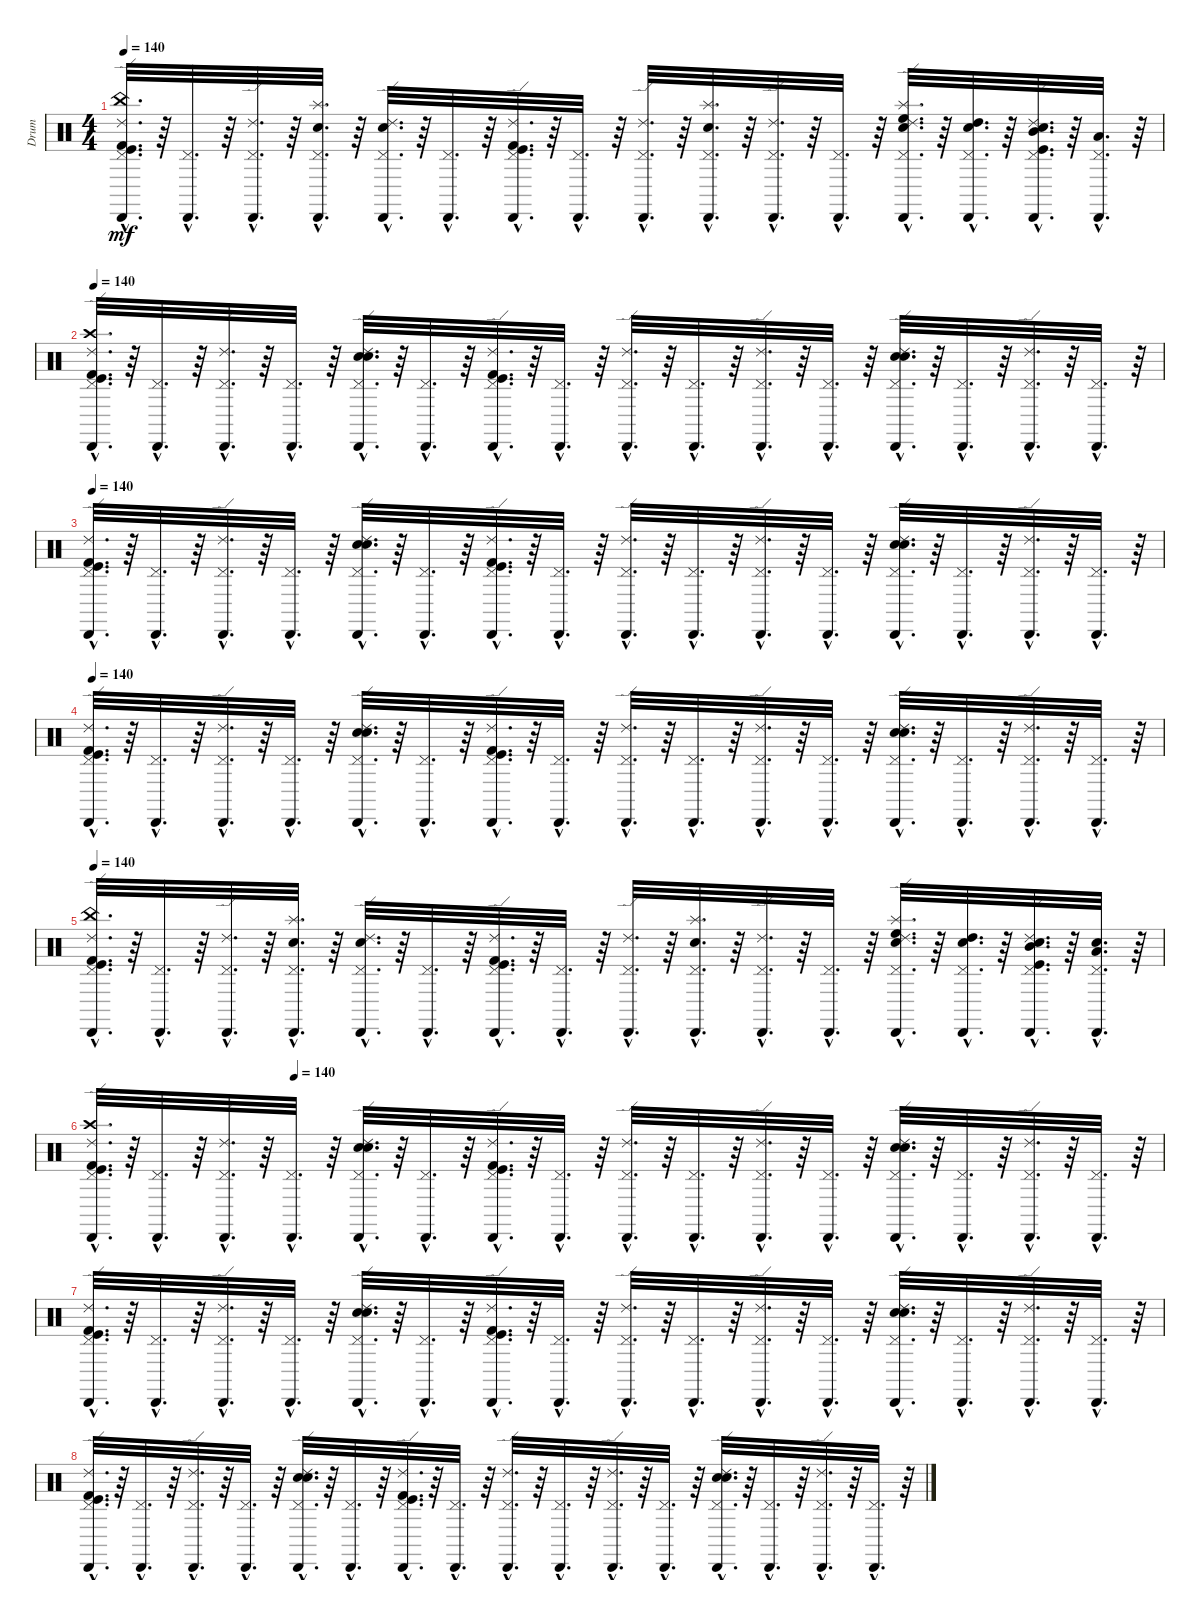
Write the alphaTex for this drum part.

\track ("Drum" "Drum") {instrument percussion}
\staff {score}
\articulation defaults
\ts (4 4)
\tempo 140
\clef neutral
\ks c
("Pedal Hi-Hat (hit)"{hac} "Kick (hit)"{hac} "Kick (hit) 2"{hac} "Ride (edge) 2"{hac} "Cabasa (hit)"{hac} "China (hit)"{hac}).32{d dy mf} r.64 ("Cabasa (hit)"{hac} "Pedal Hi-Hat (hit)"{hac}).32{d} r.64 ("Pedal Hi-Hat (hit)"{hac} "Cabasa (hit)"{hac} "Ride (edge) 2"{hac}).32{d} r.64 ("Cabasa (hit)"{hac} "Pedal Hi-Hat (hit)"{hac} "Snare (hit) 2"{hac} "Splash (hit)"{hac}).32{d} r.64 ("Pedal Hi-Hat (hit)"{hac} "Cabasa (hit)"{hac} "Ride (edge) 2"{hac} "Snare (hit) 2"{hac}).32{d} r.64 ("Pedal Hi-Hat (hit)"{hac} "Cabasa (hit)"{hac}).32{d} r.64 ("Pedal Hi-Hat (hit)"{hac} "Kick (hit) 2"{hac} "Kick (hit)"{hac} "Cabasa (hit)"{hac} "Ride (edge) 2"{hac}).32{d} r.64 ("Cabasa (hit)"{hac} "Pedal Hi-Hat (hit)"{hac}).32{d} r.64 ("Ride (edge) 2"{hac} "Pedal Hi-Hat (hit)"{hac} "Cabasa (hit)"{hac}).32{d} r.64 ("Cabasa (hit)"{hac} "Pedal Hi-Hat (hit)"{hac} "Snare (hit) 2"{hac} "Splash (hit)"{hac}).32{d} r.64 ("Ride (edge) 2"{hac} "Cabasa (hit)"{hac} "Pedal Hi-Hat (hit)"{hac}).32{d} r.64 ("Cabasa (hit)"{hac} "Pedal Hi-Hat (hit)"{hac}).32{d} r.64 ("Pedal Hi-Hat (hit)"{hac} "Cabasa (hit)"{hac} "Ride (edge) 2"{hac} "Snare (hit) 2"{hac} "Splash (hit)"{hac} "High Floor Tom (hit)"{hac}).32{d} r.64 ("Cabasa (hit)"{hac} "Pedal Hi-Hat (hit)"{hac} "Snare (hit) 2"{hac} "High Tom (hit)"{hac}).32{d} r.64 ("Pedal Hi-Hat (hit)"{hac} "Cabasa (hit)"{hac} "Ride (edge) 2"{hac} "Snare (hit) 2"{hac} "Mid Tom (hit)"{hac} "Kick (hit)"{hac}).32{d} r.64 ("Cabasa (hit)"{hac} "Pedal Hi-Hat (hit)"{hac} "Low Tom (hit)"{hac}).32{d} r.64 |
\tempo 140
("Pedal Hi-Hat (hit)"{hac} "Cabasa (hit)"{hac} "Ride (edge) 2"{hac} "Kick (hit)"{hac} "Kick (hit) 2"{hac} "Crash high (hit)"{hac}).32{d} r.64 ("Pedal Hi-Hat (hit)"{hac} "Cabasa (hit)"{hac}).32{d} r.64 ("Pedal Hi-Hat (hit)"{hac} "Cabasa (hit)"{hac} "Ride (edge) 2"{hac}).32{d} r.64 ("Pedal Hi-Hat (hit)"{hac} "Cabasa (hit)"{hac}).32{d} r.64 ("Pedal Hi-Hat (hit)"{hac} "Cabasa (hit)"{hac} "Ride (edge) 2"{hac} "Electric Snare (hit)"{hac} "Snare (hit) 2"{hac}).32{d} r.64 ("Pedal Hi-Hat (hit)"{hac} "Cabasa (hit)"{hac}).32{d} r.64 ("Pedal Hi-Hat (hit)"{hac} "Cabasa (hit)"{hac} "Ride (edge) 2"{hac} "Kick (hit) 2"{hac} "Kick (hit)"{hac}).32{d} r.64 ("Pedal Hi-Hat (hit)"{hac} "Cabasa (hit)"{hac}).32{d} r.64 ("Pedal Hi-Hat (hit)"{hac} "Cabasa (hit)"{hac} "Ride (edge) 2"{hac}).32{d} r.64 ("Pedal Hi-Hat (hit)"{hac} "Cabasa (hit)"{hac}).32{d} r.64 ("Pedal Hi-Hat (hit)"{hac} "Cabasa (hit)"{hac} "Ride (edge) 2"{hac}).32{d} r.64 ("Pedal Hi-Hat (hit)"{hac} "Cabasa (hit)"{hac}).32{d} r.64 ("Pedal Hi-Hat (hit)"{hac} "Cabasa (hit)"{hac} "Ride (edge) 2"{hac} "Snare (hit) 2"{hac} "Electric Snare (hit)"{hac}).32{d} r.64 ("Pedal Hi-Hat (hit)"{hac} "Cabasa (hit)"{hac}).32{d} r.64 ("Pedal Hi-Hat (hit)"{hac} "Cabasa (hit)"{hac} "Ride (edge) 2"{hac}).32{d} r.64 ("Pedal Hi-Hat (hit)"{hac} "Cabasa (hit)"{hac}).32{d} r.64 |
\tempo 140
("Kick (hit) 2"{hac} "Kick (hit)"{hac} "Ride (edge) 2"{hac} "Cabasa (hit)"{hac} "Pedal Hi-Hat (hit)"{hac}).32{d} r.64 ("Cabasa (hit)"{hac} "Pedal Hi-Hat (hit)"{hac}).32{d} r.64 ("Ride (edge) 2"{hac} "Cabasa (hit)"{hac} "Pedal Hi-Hat (hit)"{hac}).32{d} r.64 ("Cabasa (hit)"{hac} "Pedal Hi-Hat (hit)"{hac}).32{d} r.64 ("Snare (hit) 2"{hac} "Electric Snare (hit)"{hac} "Ride (edge) 2"{hac} "Cabasa (hit)"{hac} "Pedal Hi-Hat (hit)"{hac}).32{d} r.64 ("Cabasa (hit)"{hac} "Pedal Hi-Hat (hit)"{hac}).32{d} r.64 ("Kick (hit)"{hac} "Kick (hit) 2"{hac} "Ride (edge) 2"{hac} "Cabasa (hit)"{hac} "Pedal Hi-Hat (hit)"{hac}).32{d} r.64 ("Cabasa (hit)"{hac} "Pedal Hi-Hat (hit)"{hac}).32{d} r.64 ("Ride (edge) 2"{hac} "Cabasa (hit)"{hac} "Pedal Hi-Hat (hit)"{hac}).32{d} r.64 ("Cabasa (hit)"{hac} "Pedal Hi-Hat (hit)"{hac}).32{d} r.64 ("Ride (edge) 2"{hac} "Cabasa (hit)"{hac} "Pedal Hi-Hat (hit)"{hac}).32{d} r.64 ("Cabasa (hit)"{hac} "Pedal Hi-Hat (hit)"{hac}).32{d} r.64 ("Electric Snare (hit)"{hac} "Snare (hit) 2"{hac} "Ride (edge) 2"{hac} "Cabasa (hit)"{hac} "Pedal Hi-Hat (hit)"{hac}).32{d} r.64 ("Cabasa (hit)"{hac} "Pedal Hi-Hat (hit)"{hac}).32{d} r.64 ("Ride (edge) 2"{hac} "Cabasa (hit)"{hac} "Pedal Hi-Hat (hit)"{hac}).32{d} r.64 ("Cabasa (hit)"{hac} "Pedal Hi-Hat (hit)"{hac}).32{d} r.64 |
\tempo 140
("Pedal Hi-Hat (hit)"{hac} "Cabasa (hit)"{hac} "Ride (edge) 2"{hac} "Kick (hit)"{hac} "Kick (hit) 2"{hac}).32{d} r.64 ("Pedal Hi-Hat (hit)"{hac} "Cabasa (hit)"{hac}).32{d} r.64 ("Pedal Hi-Hat (hit)"{hac} "Cabasa (hit)"{hac} "Ride (edge) 2"{hac}).32{d} r.64 ("Pedal Hi-Hat (hit)"{hac} "Cabasa (hit)"{hac}).32{d} r.64 ("Pedal Hi-Hat (hit)"{hac} "Cabasa (hit)"{hac} "Ride (edge) 2"{hac} "Electric Snare (hit)"{hac} "Snare (hit) 2"{hac}).32{d} r.64 ("Pedal Hi-Hat (hit)"{hac} "Cabasa (hit)"{hac}).32{d} r.64 ("Pedal Hi-Hat (hit)"{hac} "Cabasa (hit)"{hac} "Ride (edge) 2"{hac} "Kick (hit) 2"{hac} "Kick (hit)"{hac}).32{d} r.64 ("Pedal Hi-Hat (hit)"{hac} "Cabasa (hit)"{hac}).32{d} r.64 ("Pedal Hi-Hat (hit)"{hac} "Cabasa (hit)"{hac} "Ride (edge) 2"{hac}).32{d} r.64 ("Pedal Hi-Hat (hit)"{hac} "Cabasa (hit)"{hac}).32{d} r.64 ("Pedal Hi-Hat (hit)"{hac} "Cabasa (hit)"{hac} "Ride (edge) 2"{hac}).32{d} r.64 ("Pedal Hi-Hat (hit)"{hac} "Cabasa (hit)"{hac}).32{d} r.64 ("Pedal Hi-Hat (hit)"{hac} "Cabasa (hit)"{hac} "Ride (edge) 2"{hac} "Snare (hit) 2"{hac} "Electric Snare (hit)"{hac}).32{d} r.64 ("Pedal Hi-Hat (hit)"{hac} "Cabasa (hit)"{hac}).32{d} r.64 ("Pedal Hi-Hat (hit)"{hac} "Cabasa (hit)"{hac} "Ride (edge) 2"{hac}).32{d} r.64 ("Pedal Hi-Hat (hit)"{hac} "Cabasa (hit)"{hac}).32{d} r.64 |
\tempo 140
("China (hit)"{hac} "Cabasa (hit)"{hac} "Ride (edge) 2"{hac} "Kick (hit) 2"{hac} "Kick (hit)"{hac} "Pedal Hi-Hat (hit)"{hac}).32{d} r.64 ("Pedal Hi-Hat (hit)"{hac} "Cabasa (hit)"{hac}).32{d} r.64 ("Ride (edge) 2"{hac} "Cabasa (hit)"{hac} "Pedal Hi-Hat (hit)"{hac}).32{d} r.64 ("Splash (hit)"{hac} "Snare (hit) 2"{hac} "Pedal Hi-Hat (hit)"{hac} "Cabasa (hit)"{hac}).32{d} r.64 ("Snare (hit) 2"{hac} "Ride (edge) 2"{hac} "Cabasa (hit)"{hac} "Pedal Hi-Hat (hit)"{hac}).32{d} r.64 ("Cabasa (hit)"{hac} "Pedal Hi-Hat (hit)"{hac}).32{d} r.64 ("Ride (edge) 2"{hac} "Cabasa (hit)"{hac} "Kick (hit)"{hac} "Kick (hit) 2"{hac} "Pedal Hi-Hat (hit)"{hac}).32{d} r.64 ("Pedal Hi-Hat (hit)"{hac} "Cabasa (hit)"{hac}).32{d} r.64 ("Cabasa (hit)"{hac} "Pedal Hi-Hat (hit)"{hac} "Ride (edge) 2"{hac}).32{d} r.64 ("Splash (hit)"{hac} "Snare (hit) 2"{hac} "Pedal Hi-Hat (hit)"{hac} "Cabasa (hit)"{hac}).32{d} r.64 ("Pedal Hi-Hat (hit)"{hac} "Cabasa (hit)"{hac} "Ride (edge) 2"{hac}).32{d} r.64 ("Pedal Hi-Hat (hit)"{hac} "Cabasa (hit)"{hac}).32{d} r.64 ("High Floor Tom (hit)"{hac} "Splash (hit)"{hac} "Snare (hit) 2"{hac} "Ride (edge) 2"{hac} "Cabasa (hit)"{hac} "Pedal Hi-Hat (hit)"{hac}).32{d} r.64 ("High Tom (hit)"{hac} "Snare (hit) 2"{hac} "Pedal Hi-Hat (hit)"{hac} "Cabasa (hit)"{hac}).32{d} r.64 ("Kick (hit)"{hac} "Mid Tom (hit)"{hac} "Snare (hit) 2"{hac} "Ride (edge) 2"{hac} "Cabasa (hit)"{hac} "Pedal Hi-Hat (hit)"{hac}).32{d} r.64 ("Snare (hit) 2"{hac} "Low Tom (hit)"{hac} "Pedal Hi-Hat (hit)"{hac} "Cabasa (hit)"{hac}).32{d} r.64 |
\tempo (140 0.1875)
("Crash high (hit)"{hac} "Kick (hit) 2"{hac} "Pedal Hi-Hat (hit)"{hac} "Cabasa (hit)"{hac} "Kick (hit)"{hac} "Ride (edge) 2"{hac}).32{d} r.64 ("Cabasa (hit)"{hac} "Pedal Hi-Hat (hit)"{hac}).32{d} r.64 ("Pedal Hi-Hat (hit)"{hac} "Ride (edge) 2"{hac} "Cabasa (hit)"{hac}).32{d} r.64 ("Cabasa (hit)"{hac} "Pedal Hi-Hat (hit)"{hac}).32{d} r.64 ("Cabasa (hit)"{hac} "Pedal Hi-Hat (hit)"{hac} "Electric Snare (hit)"{hac} "Snare (hit) 2"{hac} "Ride (edge) 2"{hac}).32{d} r.64 ("Cabasa (hit)"{hac} "Pedal Hi-Hat (hit)"{hac}).32{d} r.64 ("Kick (hit)"{hac} "Cabasa (hit)"{hac} "Pedal Hi-Hat (hit)"{hac} "Ride (edge) 2"{hac} "Kick (hit) 2"{hac}).32{d} r.64 ("Pedal Hi-Hat (hit)"{hac} "Cabasa (hit)"{hac}).32{d} r.64 ("Pedal Hi-Hat (hit)"{hac} "Cabasa (hit)"{hac} "Ride (edge) 2"{hac}).32{d} r.64 ("Cabasa (hit)"{hac} "Pedal Hi-Hat (hit)"{hac}).32{d} r.64 ("Cabasa (hit)"{hac} "Ride (edge) 2"{hac} "Pedal Hi-Hat (hit)"{hac}).32{d} r.64 ("Cabasa (hit)"{hac} "Pedal Hi-Hat (hit)"{hac}).32{d} r.64 ("Ride (edge) 2"{hac} "Pedal Hi-Hat (hit)"{hac} "Cabasa (hit)"{hac} "Electric Snare (hit)"{hac} "Snare (hit) 2"{hac}).32{d} r.64 ("Pedal Hi-Hat (hit)"{hac} "Cabasa (hit)"{hac}).32{d} r.64 ("Cabasa (hit)"{hac} "Ride (edge) 2"{hac} "Pedal Hi-Hat (hit)"{hac}).32{d} r.64 ("Cabasa (hit)"{hac} "Pedal Hi-Hat (hit)"{hac}).32{d} r.64 |
("Ride (edge) 2"{hac} "Kick (hit)"{hac} "Cabasa (hit)"{hac} "Kick (hit) 2"{hac} "Pedal Hi-Hat (hit)"{hac}).32{d} r.64 ("Pedal Hi-Hat (hit)"{hac} "Cabasa (hit)"{hac}).32{d} r.64 ("Cabasa (hit)"{hac} "Pedal Hi-Hat (hit)"{hac} "Ride (edge) 2"{hac}).32{d} r.64 ("Cabasa (hit)"{hac} "Pedal Hi-Hat (hit)"{hac}).32{d} r.64 ("Pedal Hi-Hat (hit)"{hac} "Cabasa (hit)"{hac} "Ride (edge) 2"{hac} "Electric Snare (hit)"{hac} "Snare (hit) 2"{hac}).32{d} r.64 ("Cabasa (hit)"{hac} "Pedal Hi-Hat (hit)"{hac}).32{d} r.64 ("Ride (edge) 2"{hac} "Cabasa (hit)"{hac} "Kick (hit)"{hac} "Pedal Hi-Hat (hit)"{hac} "Kick (hit) 2"{hac}).32{d} r.64 ("Pedal Hi-Hat (hit)"{hac} "Cabasa (hit)"{hac}).32{d} r.64 ("Ride (edge) 2"{hac} "Pedal Hi-Hat (hit)"{hac} "Cabasa (hit)"{hac}).32{d} r.64 ("Cabasa (hit)"{hac} "Pedal Hi-Hat (hit)"{hac}).32{d} r.64 ("Pedal Hi-Hat (hit)"{hac} "Cabasa (hit)"{hac} "Ride (edge) 2"{hac}).32{d} r.64 ("Cabasa (hit)"{hac} "Pedal Hi-Hat (hit)"{hac}).32{d} r.64 ("Electric Snare (hit)"{hac} "Ride (edge) 2"{hac} "Pedal Hi-Hat (hit)"{hac} "Snare (hit) 2"{hac} "Cabasa (hit)"{hac}).32{d} r.64 ("Pedal Hi-Hat (hit)"{hac} "Cabasa (hit)"{hac}).32{d} r.64 ("Pedal Hi-Hat (hit)"{hac} "Cabasa (hit)"{hac} "Ride (edge) 2"{hac}).32{d} r.64 ("Cabasa (hit)"{hac} "Pedal Hi-Hat (hit)"{hac}).32{d} r.64 |
("Kick (hit)"{hac} "Kick (hit) 2"{hac} "Ride (edge) 2"{hac} "Pedal Hi-Hat (hit)"{hac} "Cabasa (hit)"{hac}).32{d} r.64 ("Cabasa (hit)"{hac} "Pedal Hi-Hat (hit)"{hac}).32{d} r.64 ("Ride (edge) 2"{hac} "Cabasa (hit)"{hac} "Pedal Hi-Hat (hit)"{hac}).32{d} r.64 ("Cabasa (hit)"{hac} "Pedal Hi-Hat (hit)"{hac}).32{d} r.64 ("Electric Snare (hit)"{hac} "Snare (hit) 2"{hac} "Ride (edge) 2"{hac} "Pedal Hi-Hat (hit)"{hac} "Cabasa (hit)"{hac}).32{d} r.64 ("Cabasa (hit)"{hac} "Pedal Hi-Hat (hit)"{hac}).32{d} r.64 ("Pedal Hi-Hat (hit)"{hac} "Kick (hit)"{hac} "Ride (edge) 2"{hac} "Cabasa (hit)"{hac} "Kick (hit) 2"{hac}).32{d} r.64 ("Cabasa (hit)"{hac} "Pedal Hi-Hat (hit)"{hac}).32{d} r.64 ("Cabasa (hit)"{hac} "Ride (edge) 2"{hac} "Pedal Hi-Hat (hit)"{hac}).32{d} r.64 ("Cabasa (hit)"{hac} "Pedal Hi-Hat (hit)"{hac}).32{d} r.64 ("Ride (edge) 2"{hac} "Cabasa (hit)"{hac} "Pedal Hi-Hat (hit)"{hac}).32{d} r.64 ("Cabasa (hit)"{hac} "Pedal Hi-Hat (hit)"{hac}).32{d} r.64 ("Electric Snare (hit)"{hac} "Snare (hit) 2"{hac} "Pedal Hi-Hat (hit)"{hac} "Cabasa (hit)"{hac} "Ride (edge) 2"{hac}).32{d} r.64 ("Cabasa (hit)"{hac} "Pedal Hi-Hat (hit)"{hac}).32{d} r.64 ("Ride (edge) 2"{hac} "Cabasa (hit)"{hac} "Pedal Hi-Hat (hit)"{hac}).32{d} r.64 ("Cabasa (hit)"{hac} "Pedal Hi-Hat (hit)"{hac}).32{d} r.64
